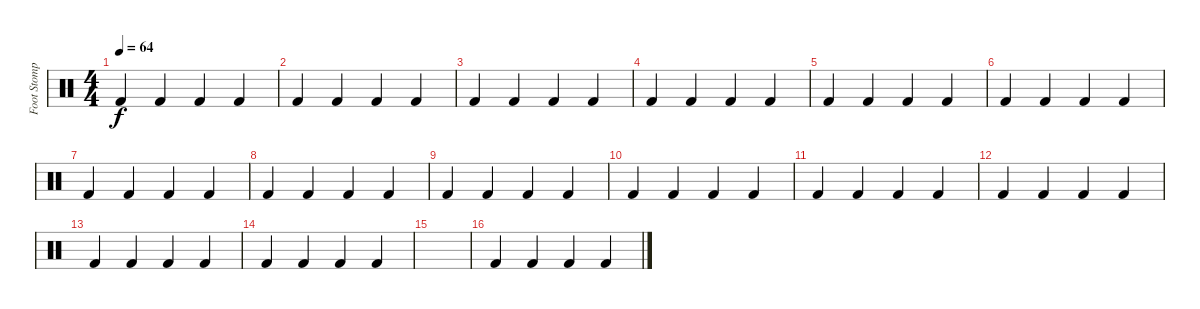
\track ("Foot Stomp" "Foot Stomp") {instrument percussion}
\staff {score}
\articulation defaults
\ts (4 4)
\tempo 64
\clef neutral
\ks c "Kick (hit) 2".4{dy f} "Kick (hit) 2".4 "Kick (hit) 2".4 "Kick (hit) 2".4
|
"Kick (hit) 2".4 "Kick (hit) 2".4 "Kick (hit) 2".4 "Kick (hit) 2".4 |
"Kick (hit) 2".4 "Kick (hit) 2".4 "Kick (hit) 2".4 "Kick (hit) 2".4 |
"Kick (hit) 2".4 "Kick (hit) 2".4 "Kick (hit) 2".4 "Kick (hit) 2".4 |
"Kick (hit) 2".4 "Kick (hit) 2".4 "Kick (hit) 2".4 "Kick (hit) 2".4 |
"Kick (hit) 2".4 "Kick (hit) 2".4 "Kick (hit) 2".4 "Kick (hit) 2".4 |
"Kick (hit) 2".4 "Kick (hit) 2".4 "Kick (hit) 2".4 "Kick (hit) 2".4 |
"Kick (hit) 2".4 "Kick (hit) 2".4 "Kick (hit) 2".4 "Kick (hit) 2".4 |
"Kick (hit) 2".4 "Kick (hit) 2".4 "Kick (hit) 2".4 "Kick (hit) 2".4 |
"Kick (hit) 2".4 "Kick (hit) 2".4 "Kick (hit) 2".4 "Kick (hit) 2".4 |
"Kick (hit) 2".4 "Kick (hit) 2".4 "Kick (hit) 2".4 "Kick (hit) 2".4 |
"Kick (hit) 2".4 "Kick (hit) 2".4 "Kick (hit) 2".4 "Kick (hit) 2".4 |
"Kick (hit) 2".4 "Kick (hit) 2".4 "Kick (hit) 2".4 "Kick (hit) 2".4 |
"Kick (hit) 2".4 "Kick (hit) 2".4 "Kick (hit) 2".4 "Kick (hit) 2".4 |
|
"Kick (hit) 2".4 "Kick (hit) 2".4 "Kick (hit) 2".4 "Kick (hit) 2".4
